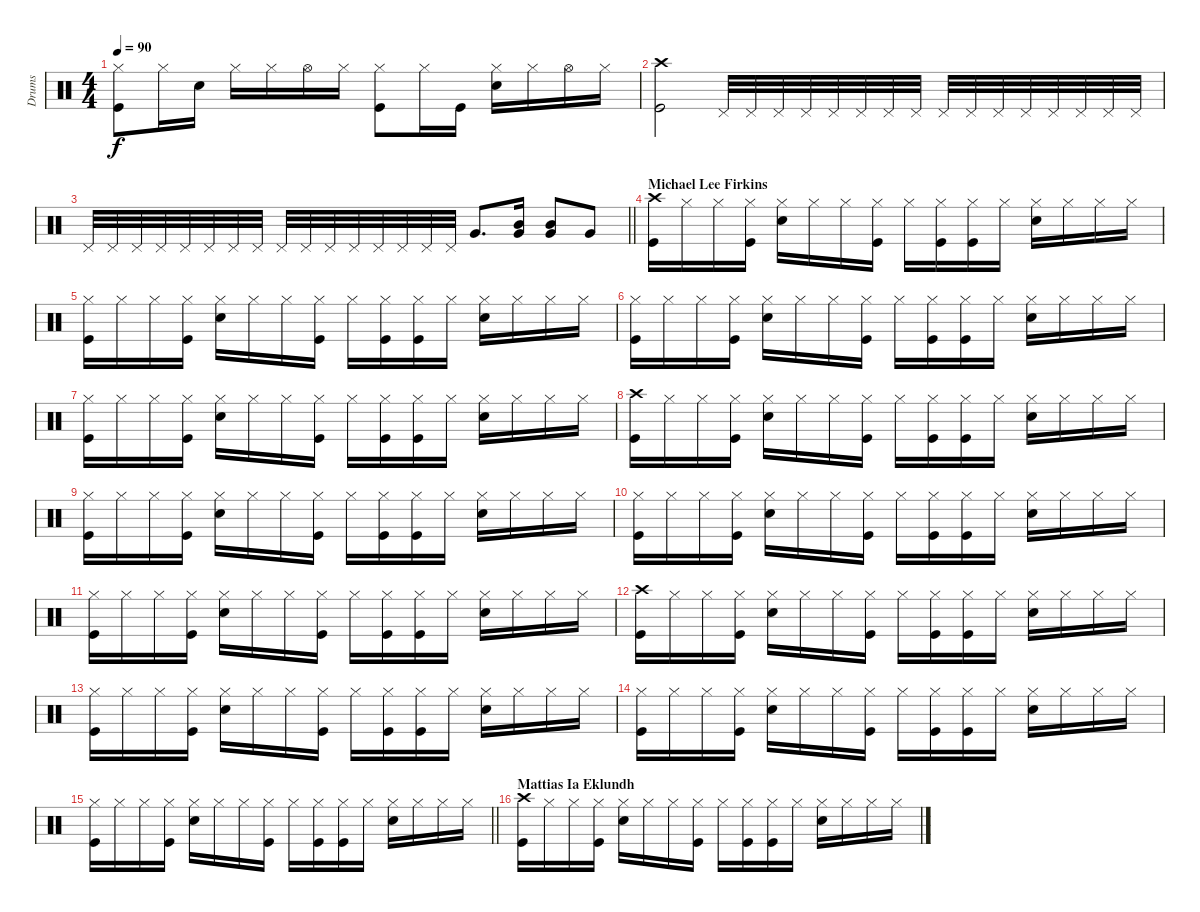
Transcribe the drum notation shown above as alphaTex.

\track ("Drums" "Drums") {instrument percussion}
\staff {score}
\articulation defaults
\ts (4 4)
\tempo 90
\clef neutral
\ks c
("Hi-Hat (closed)" "Kick (hit)").8{dy f} "Hi-Hat (closed)".16 "Snare (hit) 2".16 "Hi-Hat (closed)".16 "Hi-Hat (closed)".16 "Hi-Hat (open)".16 "Hi-Hat (closed)".16 ("Hi-Hat (closed)" "Kick (hit)").8 "Hi-Hat (closed)".16 "Kick (hit)".16 ("Hi-Hat (closed)" "Snare (hit) 2").16 "Hi-Hat (closed)".16 "Hi-Hat (open)".16 "Hi-Hat (closed)".16 |
("Crash high (hit)" "Kick (hit)").2 "Pedal Hi-Hat (hit)".32 "Pedal Hi-Hat (hit)".32 "Pedal Hi-Hat (hit)".32 "Pedal Hi-Hat (hit)".32 "Pedal Hi-Hat (hit)".32 "Pedal Hi-Hat (hit)".32 "Pedal Hi-Hat (hit)".32 "Pedal Hi-Hat (hit)".32 "Pedal Hi-Hat (hit)".32 "Pedal Hi-Hat (hit)".32 "Pedal Hi-Hat (hit)".32 "Pedal Hi-Hat (hit)".32 "Pedal Hi-Hat (hit)".32 "Pedal Hi-Hat (hit)".32 "Pedal Hi-Hat (hit)".32 "Pedal Hi-Hat (hit)".32 |
\barLineRight lightlight "Pedal Hi-Hat (hit)".32 "Pedal Hi-Hat (hit)".32 "Pedal Hi-Hat (hit)".32 "Pedal Hi-Hat (hit)".32 "Pedal Hi-Hat (hit)".32 "Pedal Hi-Hat (hit)".32 "Pedal Hi-Hat (hit)".32 "Pedal Hi-Hat (hit)".32 "Pedal Hi-Hat (hit)".32 "Pedal Hi-Hat (hit)".32 "Pedal Hi-Hat (hit)".32 "Pedal Hi-Hat (hit)".32 "Pedal Hi-Hat (hit)".32 "Pedal Hi-Hat (hit)".32 "Pedal Hi-Hat (hit)".32 "Pedal Hi-Hat (hit)".32 "Very Low Tom (hit)".8{d}
("Mid Tom (hit)" "Very Low Tom (hit)").16 ("Mid Tom (hit)" "Very Low Tom (hit)").8 "Very Low Tom (hit)".8 |
\section ("" "Michael Lee Firkins")
("Crash high (hit)" "Kick (hit)").16 "Hi-Hat (closed)".16 "Hi-Hat (closed)".16 ("Hi-Hat (closed)" "Kick (hit)").16 ("Hi-Hat (closed)" "Snare (hit) 2").16 "Hi-Hat (closed)".16 "Hi-Hat (closed)".16 ("Hi-Hat (closed)" "Kick (hit)").16 "Hi-Hat (closed)".16 ("Hi-Hat (closed)" "Kick (hit)").16 ("Hi-Hat (closed)" "Kick (hit)").16 "Hi-Hat (closed)".16 ("Hi-Hat (closed)" "Snare (hit) 2").16 "Hi-Hat (closed)".16 "Hi-Hat (closed)".16 "Hi-Hat (closed)".16 |
("Hi-Hat (closed)" "Kick (hit)").16 "Hi-Hat (closed)".16 "Hi-Hat (closed)".16 ("Hi-Hat (closed)" "Kick (hit)").16 ("Hi-Hat (closed)" "Snare (hit) 2").16 "Hi-Hat (closed)".16 "Hi-Hat (closed)".16 ("Hi-Hat (closed)" "Kick (hit)").16 "Hi-Hat (closed)".16 ("Hi-Hat (closed)" "Kick (hit)").16 ("Hi-Hat (closed)" "Kick (hit)").16 "Hi-Hat (closed)".16 ("Hi-Hat (closed)" "Snare (hit) 2").16 "Hi-Hat (closed)".16 "Hi-Hat (closed)".16 "Hi-Hat (closed)".16 |
("Hi-Hat (closed)" "Kick (hit)").16 "Hi-Hat (closed)".16 "Hi-Hat (closed)".16 ("Hi-Hat (closed)" "Kick (hit)").16 ("Hi-Hat (closed)" "Snare (hit) 2").16 "Hi-Hat (closed)".16 "Hi-Hat (closed)".16 ("Hi-Hat (closed)" "Kick (hit)").16 "Hi-Hat (closed)".16 ("Hi-Hat (closed)" "Kick (hit)").16 ("Hi-Hat (closed)" "Kick (hit)").16 "Hi-Hat (closed)".16 ("Hi-Hat (closed)" "Snare (hit) 2").16 "Hi-Hat (closed)".16 "Hi-Hat (closed)".16 "Hi-Hat (closed)".16 |
("Hi-Hat (closed)" "Kick (hit)").16 "Hi-Hat (closed)".16 "Hi-Hat (closed)".16 ("Hi-Hat (closed)" "Kick (hit)").16 ("Hi-Hat (closed)" "Snare (hit) 2").16 "Hi-Hat (closed)".16 "Hi-Hat (closed)".16 ("Hi-Hat (closed)" "Kick (hit)").16 "Hi-Hat (closed)".16 ("Hi-Hat (closed)" "Kick (hit)").16 ("Hi-Hat (closed)" "Kick (hit)").16 "Hi-Hat (closed)".16 ("Hi-Hat (closed)" "Snare (hit) 2").16 "Hi-Hat (closed)".16 "Hi-Hat (closed)".16 "Hi-Hat (closed)".16 |
("Crash high (hit)" "Kick (hit)").16 "Hi-Hat (closed)".16 "Hi-Hat (closed)".16 ("Hi-Hat (closed)" "Kick (hit)").16 ("Hi-Hat (closed)" "Snare (hit) 2").16 "Hi-Hat (closed)".16 "Hi-Hat (closed)".16 ("Hi-Hat (closed)" "Kick (hit)").16 "Hi-Hat (closed)".16 ("Hi-Hat (closed)" "Kick (hit)").16 ("Hi-Hat (closed)" "Kick (hit)").16 "Hi-Hat (closed)".16 ("Hi-Hat (closed)" "Snare (hit) 2").16 "Hi-Hat (closed)".16 "Hi-Hat (closed)".16 "Hi-Hat (closed)".16 |
("Hi-Hat (closed)" "Kick (hit)").16 "Hi-Hat (closed)".16 "Hi-Hat (closed)".16 ("Hi-Hat (closed)" "Kick (hit)").16 ("Hi-Hat (closed)" "Snare (hit) 2").16 "Hi-Hat (closed)".16 "Hi-Hat (closed)".16 ("Hi-Hat (closed)" "Kick (hit)").16 "Hi-Hat (closed)".16 ("Hi-Hat (closed)" "Kick (hit)").16 ("Hi-Hat (closed)" "Kick (hit)").16 "Hi-Hat (closed)".16 ("Hi-Hat (closed)" "Snare (hit) 2").16 "Hi-Hat (closed)".16 "Hi-Hat (closed)".16 "Hi-Hat (closed)".16 |
("Hi-Hat (closed)" "Kick (hit)").16 "Hi-Hat (closed)".16 "Hi-Hat (closed)".16 ("Hi-Hat (closed)" "Kick (hit)").16 ("Hi-Hat (closed)" "Snare (hit) 2").16 "Hi-Hat (closed)".16 "Hi-Hat (closed)".16 ("Hi-Hat (closed)" "Kick (hit)").16 "Hi-Hat (closed)".16 ("Hi-Hat (closed)" "Kick (hit)").16 ("Hi-Hat (closed)" "Kick (hit)").16 "Hi-Hat (closed)".16 ("Hi-Hat (closed)" "Snare (hit) 2").16 "Hi-Hat (closed)".16 "Hi-Hat (closed)".16 "Hi-Hat (closed)".16 |
("Hi-Hat (closed)" "Kick (hit)").16 "Hi-Hat (closed)".16 "Hi-Hat (closed)".16 ("Hi-Hat (closed)" "Kick (hit)").16 ("Hi-Hat (closed)" "Snare (hit) 2").16 "Hi-Hat (closed)".16 "Hi-Hat (closed)".16 ("Hi-Hat (closed)" "Kick (hit)").16 "Hi-Hat (closed)".16 ("Hi-Hat (closed)" "Kick (hit)").16 ("Hi-Hat (closed)" "Kick (hit)").16 "Hi-Hat (closed)".16 ("Hi-Hat (closed)" "Snare (hit) 2").16 "Hi-Hat (closed)".16 "Hi-Hat (closed)".16 "Hi-Hat (closed)".16 |
("Crash high (hit)" "Kick (hit)").16 "Hi-Hat (closed)".16 "Hi-Hat (closed)".16 ("Hi-Hat (closed)" "Kick (hit)").16 ("Hi-Hat (closed)" "Snare (hit) 2").16 "Hi-Hat (closed)".16 "Hi-Hat (closed)".16 ("Hi-Hat (closed)" "Kick (hit)").16 "Hi-Hat (closed)".16 ("Hi-Hat (closed)" "Kick (hit)").16 ("Hi-Hat (closed)" "Kick (hit)").16 "Hi-Hat (closed)".16 ("Hi-Hat (closed)" "Snare (hit) 2").16 "Hi-Hat (closed)".16 "Hi-Hat (closed)".16 "Hi-Hat (closed)".16 |
("Hi-Hat (closed)" "Kick (hit)").16 "Hi-Hat (closed)".16 "Hi-Hat (closed)".16 ("Hi-Hat (closed)" "Kick (hit)").16 ("Hi-Hat (closed)" "Snare (hit) 2").16 "Hi-Hat (closed)".16 "Hi-Hat (closed)".16 ("Hi-Hat (closed)" "Kick (hit)").16 "Hi-Hat (closed)".16 ("Hi-Hat (closed)" "Kick (hit)").16 ("Hi-Hat (closed)" "Kick (hit)").16 "Hi-Hat (closed)".16 ("Hi-Hat (closed)" "Snare (hit) 2").16 "Hi-Hat (closed)".16 "Hi-Hat (closed)".16 "Hi-Hat (closed)".16 |
("Hi-Hat (closed)" "Kick (hit)").16 "Hi-Hat (closed)".16 "Hi-Hat (closed)".16 ("Hi-Hat (closed)" "Kick (hit)").16 ("Hi-Hat (closed)" "Snare (hit) 2").16 "Hi-Hat (closed)".16 "Hi-Hat (closed)".16 ("Hi-Hat (closed)" "Kick (hit)").16 "Hi-Hat (closed)".16 ("Hi-Hat (closed)" "Kick (hit)").16 ("Hi-Hat (closed)" "Kick (hit)").16 "Hi-Hat (closed)".16 ("Hi-Hat (closed)" "Snare (hit) 2").16 "Hi-Hat (closed)".16 "Hi-Hat (closed)".16 "Hi-Hat (closed)".16 |
\barLineRight lightlight
("Hi-Hat (closed)" "Kick (hit)").16 "Hi-Hat (closed)".16 "Hi-Hat (closed)".16 ("Hi-Hat (closed)" "Kick (hit)").16 ("Hi-Hat (closed)" "Snare (hit) 2").16 "Hi-Hat (closed)".16 "Hi-Hat (closed)".16 ("Hi-Hat (closed)" "Kick (hit)").16 "Hi-Hat (closed)".16 ("Hi-Hat (closed)" "Kick (hit)").16 ("Hi-Hat (closed)" "Kick (hit)").16 "Hi-Hat (closed)".16 ("Hi-Hat (closed)" "Snare (hit) 2").16 "Hi-Hat (closed)".16 "Hi-Hat (closed)".16 "Hi-Hat (closed)".16 |
\section ("" "Mattias Ia Eklundh")
("Crash high (hit)" "Kick (hit)").16 "Hi-Hat (closed)".16 "Hi-Hat (closed)".16 ("Hi-Hat (closed)" "Kick (hit)").16 ("Hi-Hat (closed)" "Snare (hit) 2").16 "Hi-Hat (closed)".16 "Hi-Hat (closed)".16 ("Hi-Hat (closed)" "Kick (hit)").16 "Hi-Hat (closed)".16 ("Hi-Hat (closed)" "Kick (hit)").16 ("Hi-Hat (closed)" "Kick (hit)").16 "Hi-Hat (closed)".16 ("Hi-Hat (closed)" "Snare (hit) 2").16 "Hi-Hat (closed)".16 "Hi-Hat (closed)".16 "Hi-Hat (closed)".16
